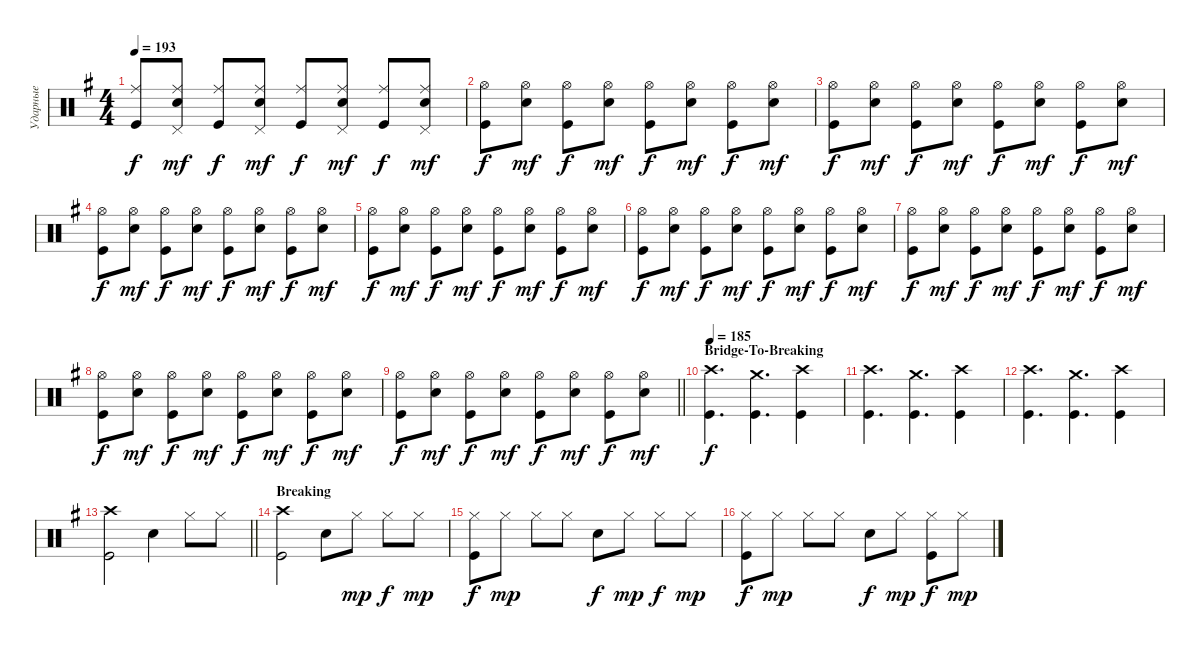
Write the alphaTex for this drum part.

\track ("Ударные" "Ударные") {instrument percussion}
\staff {score}
\articulation defaults
\ts (4 4)
\tempo 193
\clef neutral
\ks eminor
("Kick (hit)" "Ride (middle)").8{dy f} ("Snare (hit) 2" "Pedal Hi-Hat (hit)" "Ride (middle)").8{dy mf} ("Ride (middle)" "Kick (hit)").8{dy f} ("Snare (hit) 2" "Pedal Hi-Hat (hit)" "Ride (middle)").8{dy mf} ("Kick (hit)" "Ride (middle)").8{dy f} ("Snare (hit) 2" "Pedal Hi-Hat (hit)" "Ride (middle)").8{dy mf} ("Kick (hit)" "Ride (middle)").8{dy f} ("Snare (hit) 2" "Pedal Hi-Hat (hit)" "Ride (middle)").8{dy mf} |
("Kick (hit)" "Hi-Hat (open)").8{dy f} ("Snare (hit) 2" "Hi-Hat (open)").8{dy mf} ("Hi-Hat (open)" "Kick (hit)").8{dy f} ("Snare (hit) 2" "Hi-Hat (open)").8{dy mf} ("Kick (hit)" "Hi-Hat (open)").8{dy f} ("Snare (hit) 2" "Hi-Hat (open)").8{dy mf} ("Kick (hit)" "Hi-Hat (open)").8{dy f} ("Snare (hit) 2" "Hi-Hat (open)").8{dy mf} |
("Kick (hit)" "Hi-Hat (open)").8{dy f} ("Snare (hit) 2" "Hi-Hat (open)").8{dy mf} ("Hi-Hat (open)" "Kick (hit)").8{dy f} ("Snare (hit) 2" "Hi-Hat (open)").8{dy mf} ("Kick (hit)" "Hi-Hat (open)").8{dy f} ("Snare (hit) 2" "Hi-Hat (open)").8{dy mf} ("Kick (hit)" "Hi-Hat (open)").8{dy f} ("Snare (hit) 2" "Hi-Hat (open)").8{dy mf} |
("Kick (hit)" "Hi-Hat (open)").8{dy f} ("Snare (hit) 2" "Hi-Hat (open)").8{dy mf} ("Hi-Hat (open)" "Kick (hit)").8{dy f} ("Snare (hit) 2" "Hi-Hat (open)").8{dy mf} ("Kick (hit)" "Hi-Hat (open)").8{dy f} ("Snare (hit) 2" "Hi-Hat (open)").8{dy mf} ("Kick (hit)" "Hi-Hat (open)").8{dy f} ("Snare (hit) 2" "Hi-Hat (open)").8{dy mf} |
("Kick (hit)" "Hi-Hat (open)").8{dy f} ("Snare (hit) 2" "Hi-Hat (open)").8{dy mf} ("Hi-Hat (open)" "Kick (hit)").8{dy f} ("Snare (hit) 2" "Hi-Hat (open)").8{dy mf} ("Kick (hit)" "Hi-Hat (open)").8{dy f} ("Snare (hit) 2" "Hi-Hat (open)").8{dy mf} ("Kick (hit)" "Hi-Hat (open)").8{dy f} ("Snare (hit) 2" "Hi-Hat (open)").8{dy mf} |
("Kick (hit)" "Hi-Hat (open)").8{dy f} ("Snare (hit) 2" "Hi-Hat (open)").8{dy mf} ("Hi-Hat (open)" "Kick (hit)").8{dy f} ("Snare (hit) 2" "Hi-Hat (open)").8{dy mf} ("Kick (hit)" "Hi-Hat (open)").8{dy f} ("Snare (hit) 2" "Hi-Hat (open)").8{dy mf} ("Kick (hit)" "Hi-Hat (open)").8{dy f} ("Snare (hit) 2" "Hi-Hat (open)").8{dy mf} |
("Kick (hit)" "Hi-Hat (open)").8{dy f} ("Snare (hit) 2" "Hi-Hat (open)").8{dy mf} ("Hi-Hat (open)" "Kick (hit)").8{dy f} ("Snare (hit) 2" "Hi-Hat (open)").8{dy mf} ("Kick (hit)" "Hi-Hat (open)").8{dy f} ("Snare (hit) 2" "Hi-Hat (open)").8{dy mf} ("Kick (hit)" "Hi-Hat (open)").8{dy f} ("Snare (hit) 2" "Hi-Hat (open)").8{dy mf} |
("Kick (hit)" "Hi-Hat (open)").8{dy f} ("Snare (hit) 2" "Hi-Hat (open)").8{dy mf} ("Hi-Hat (open)" "Kick (hit)").8{dy f} ("Snare (hit) 2" "Hi-Hat (open)").8{dy mf} ("Kick (hit)" "Hi-Hat (open)").8{dy f} ("Snare (hit) 2" "Hi-Hat (open)").8{dy mf} ("Kick (hit)" "Hi-Hat (open)").8{dy f} ("Snare (hit) 2" "Hi-Hat (open)").8{dy mf} |
\barLineRight lightlight
("Kick (hit)" "Hi-Hat (open)").8{dy f} ("Snare (hit) 2" "Hi-Hat (open)").8{dy mf} ("Hi-Hat (open)" "Kick (hit)").8{dy f} ("Snare (hit) 2" "Hi-Hat (open)").8{dy mf} ("Kick (hit)" "Hi-Hat (open)").8{dy f} ("Snare (hit) 2" "Hi-Hat (open)").8{dy mf} ("Kick (hit)" "Hi-Hat (open)").8{dy f} ("Snare (hit) 2" "Hi-Hat (open)").8{dy mf} |
\section ("" "Bridge-To-Breaking")
\tempo 185
("Kick (hit)" "Crash high (hit)").4{d dy f} ("Kick (hit)" "Crash medium (hit)").4{d} ("Kick (hit)" "Crash high (hit)").4 |
("Kick (hit)" "Crash high (hit)").4{d} ("Kick (hit)" "Crash medium (hit)").4{d} ("Kick (hit)" "Crash high (hit)").4 |
("Kick (hit)" "Crash high (hit)").4{d} ("Kick (hit)" "Crash medium (hit)").4{d} ("Kick (hit)" "Crash high (hit)").4 |
\barLineRight lightlight
("Kick (hit)" "Crash high (hit)").2 "Snare (hit) 2".4 "Hi-Hat (closed)".8 "Hi-Hat (closed)".8 |
\section ("" "Breaking")
("Crash high (hit)" "Kick (hit)").2 "Snare (hit) 2".8 "Hi-Hat (closed)".8{dy mp} "Hi-Hat (closed)".8{dy f} "Hi-Hat (closed)".8{dy mp} |
("Hi-Hat (closed)" "Kick (hit)").8{dy f} "Hi-Hat (closed)".8{dy mp} "Hi-Hat (closed)".8 "Hi-Hat (closed)".8 "Snare (hit) 2".8{dy f} "Hi-Hat (closed)".8{dy mp} "Hi-Hat (closed)".8{dy f} "Hi-Hat (closed)".8{dy mp} |
("Hi-Hat (closed)" "Kick (hit)").8{dy f} "Hi-Hat (closed)".8{dy mp} "Hi-Hat (closed)".8 "Hi-Hat (closed)".8 "Snare (hit) 2".8{dy f} "Hi-Hat (closed)".8{dy mp} ("Hi-Hat (closed)" "Kick (hit)").8{dy f} "Hi-Hat (closed)".8{dy mp}
